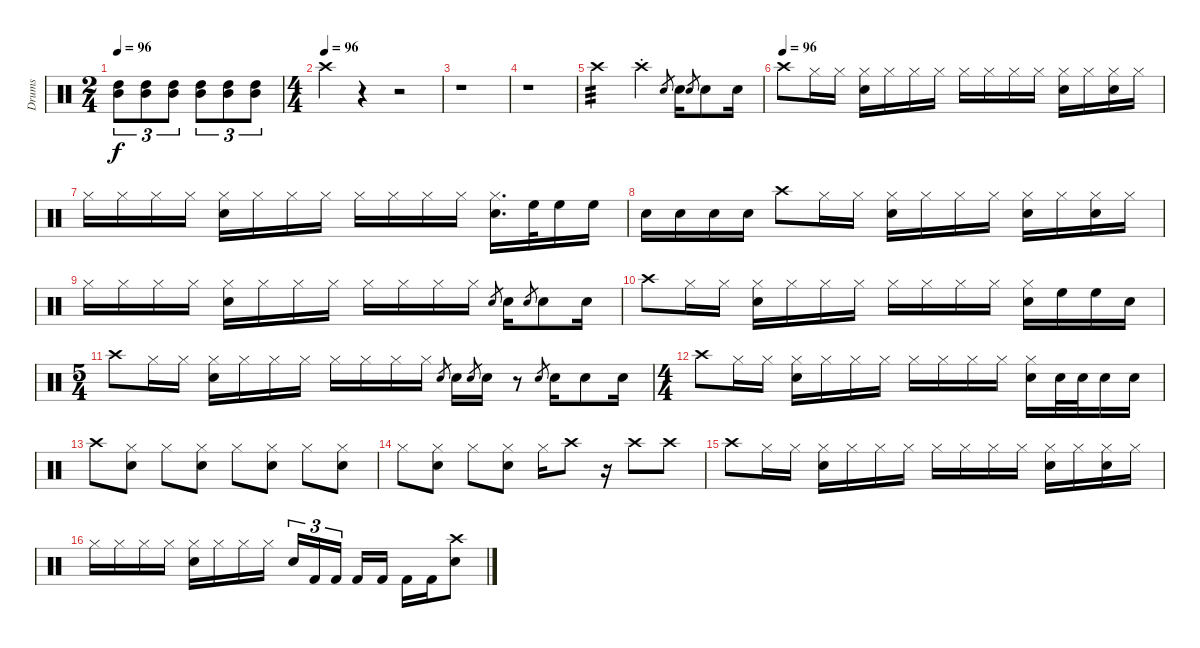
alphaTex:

\track ("Drums" "Drums") {instrument percussion}
\staff {score}
\articulation defaults
\ts (2 4)
\tempo 96
\clef neutral
\ks c
("Mid Tom (hit)" "High Tom (hit)").8{tu (3 2) dy f} ("Mid Tom (hit)" "High Tom (hit)").8{tu (3 2)} ("Mid Tom (hit)" "High Tom (hit)").8{tu (3 2)} ("Mid Tom (hit)" "High Tom (hit)").8{tu (3 2)} ("Mid Tom (hit)" "High Tom (hit)").8{tu (3 2)} ("Mid Tom (hit)" "High Tom (hit)").8{tu (3 2)} |
\ts (4 4)
\tempo (96)
"Crash high (hit)".4 r.4 r.2 |
r.1 |
r.1 |
"Crash high (hit)".2{tp 3 volume 13} "Crash high (hit)"{st}.4 "Snare (hit) 2".8{gr} "Snare (hit) 2".16 "Snare (hit) 2".8{gr} "Snare (hit) 2".8 "Snare (hit) 2".16 |
\tempo (96)
"Crash high (hit)".8 "Hi-Hat (closed)".16 "Hi-Hat (closed)".16 ("Hi-Hat (closed)" "Snare (hit) 2").16 "Hi-Hat (closed)".16 "Hi-Hat (closed)".16 "Hi-Hat (closed)".16 "Hi-Hat (closed)".16 "Hi-Hat (closed)".16 "Hi-Hat (closed)".16 "Hi-Hat (closed)".16 ("Hi-Hat (closed)" "Snare (hit) 2").16 "Hi-Hat (closed)".16 ("Hi-Hat (closed)" "Snare (hit) 2").16 "Hi-Hat (closed)".16 |
"Hi-Hat (closed)".16 "Hi-Hat (closed)".16 "Hi-Hat (closed)".16 "Hi-Hat (closed)".16 ("Hi-Hat (closed)" "Snare (hit) 2").16 "Hi-Hat (closed)".16 "Hi-Hat (closed)".16 "Hi-Hat (closed)".16 "Hi-Hat (closed)".16 "Hi-Hat (closed)".16 "Hi-Hat (closed)".16 "Hi-Hat (closed)".16 ("Hi-Hat (closed)" "Snare (hit) 2").16{d} "High Floor Tom (hit)".32 "High Floor Tom (hit)".16 "High Floor Tom (hit)".16 |
"Snare (hit) 2".16 "Snare (hit) 2".16 "Snare (hit) 2".16 "Snare (hit) 2".16 "Crash high (hit)".8 "Hi-Hat (closed)".16 "Hi-Hat (closed)".16 ("Hi-Hat (closed)" "Snare (hit) 2").16 "Hi-Hat (closed)".16 "Hi-Hat (closed)".16 "Hi-Hat (closed)".16 ("Hi-Hat (closed)" "Snare (hit) 2").16 "Hi-Hat (closed)".16 ("Hi-Hat (closed)" "Snare (hit) 2").16 "Hi-Hat (closed)".16 |
"Hi-Hat (closed)".16 "Hi-Hat (closed)".16 "Hi-Hat (closed)".16 "Hi-Hat (closed)".16 ("Hi-Hat (closed)" "Snare (hit) 2").16 "Hi-Hat (closed)".16 "Hi-Hat (closed)".16 "Hi-Hat (closed)".16 "Hi-Hat (closed)".16 "Hi-Hat (closed)".16 "Hi-Hat (closed)".16 "Hi-Hat (closed)".16 "Snare (hit) 2".8{gr} "Snare (hit) 2".16 "Snare (hit) 2".8{gr} "Snare (hit) 2".8 "Snare (hit) 2".16 |
"Crash high (hit)".8 "Hi-Hat (closed)".16 "Hi-Hat (closed)".16 ("Hi-Hat (closed)" "Snare (hit) 2").16 "Hi-Hat (closed)".16 "Hi-Hat (closed)".16 "Hi-Hat (closed)".16 "Hi-Hat (closed)".16 "Hi-Hat (closed)".16 "Hi-Hat (closed)".16 "Hi-Hat (closed)".16 ("Hi-Hat (closed)" "Snare (hit) 2").16 "High Floor Tom (hit)".16 "High Floor Tom (hit)".16 "Snare (hit) 2".16 |
\ts (5 4)
"Crash high (hit)".8 "Hi-Hat (closed)".16 "Hi-Hat (closed)".16 ("Hi-Hat (closed)" "Snare (hit) 2").16 "Hi-Hat (closed)".16 "Hi-Hat (closed)".16 "Hi-Hat (closed)".16 "Hi-Hat (closed)".16 "Hi-Hat (closed)".16 "Hi-Hat (closed)".16 "Hi-Hat (closed)".16 "Snare (hit) 2".8{gr} "Snare (hit) 2".16 "Snare (hit) 2".8{gr} "Snare (hit) 2".16 r.8 "Snare (hit) 2".8{gr} "Snare (hit) 2".16 "Snare (hit) 2".8 "Snare (hit) 2".16 |
\ts (4 4)
"Crash high (hit)".8 "Hi-Hat (closed)".16 "Hi-Hat (closed)".16 ("Hi-Hat (closed)" "Snare (hit) 2").16 "Hi-Hat (closed)".16 "Hi-Hat (closed)".16 "Hi-Hat (closed)".16 "Hi-Hat (closed)".16 "Hi-Hat (closed)".16 "Hi-Hat (closed)".16 "Hi-Hat (closed)".16 ("Hi-Hat (closed)" "Snare (hit) 2").16 "Snare (hit) 2".32 "Snare (hit) 2".32 "Snare (hit) 2".16 "Snare (hit) 2".16 |
"Crash high (hit)".8 ("Hi-Hat (closed)" "Snare (hit) 2").8 "Hi-Hat (closed)".8 ("Hi-Hat (closed)" "Snare (hit) 2").8 "Hi-Hat (closed)".8 ("Hi-Hat (closed)" "Snare (hit) 2").8 "Hi-Hat (closed)".8 ("Hi-Hat (closed)" "Snare (hit) 2").8 |
"Hi-Hat (closed)".8 ("Hi-Hat (closed)" "Snare (hit) 2").8 "Hi-Hat (closed)".8 ("Hi-Hat (closed)" "Snare (hit) 2").8 "Hi-Hat (closed)".16 "Crash high (hit)".8 r.16 "Crash high (hit)".8 "Crash high (hit)".8 |
"Crash high (hit)".8 "Hi-Hat (closed)".16 "Hi-Hat (closed)".16 ("Hi-Hat (closed)" "Snare (hit) 2").16 "Hi-Hat (closed)".16 "Hi-Hat (closed)".16 "Hi-Hat (closed)".16 "Hi-Hat (closed)".16 "Hi-Hat (closed)".16 "Hi-Hat (closed)".16 "Hi-Hat (closed)".16 ("Hi-Hat (closed)" "Snare (hit) 2").16 "Hi-Hat (closed)".16 ("Hi-Hat (closed)" "Snare (hit) 2").16 "Hi-Hat (closed)".16 |
"Hi-Hat (closed)".16 "Hi-Hat (closed)".16 "Hi-Hat (closed)".16 "Hi-Hat (closed)".16 ("Hi-Hat (closed)" "Snare (hit) 2").16 "Hi-Hat (closed)".16 "Hi-Hat (closed)".16 "Hi-Hat (closed)".16 "Snare (hit) 2".16{tu (3 2)} "Kick (hit) 2".16{tu (3 2)} "Kick (hit) 2".16{tu (3 2)} "Kick (hit) 2".16 "Kick (hit) 2".16 "Kick (hit) 2".16 "Kick (hit) 2".16 ("Crash high (hit)" "Snare (hit) 2").8
